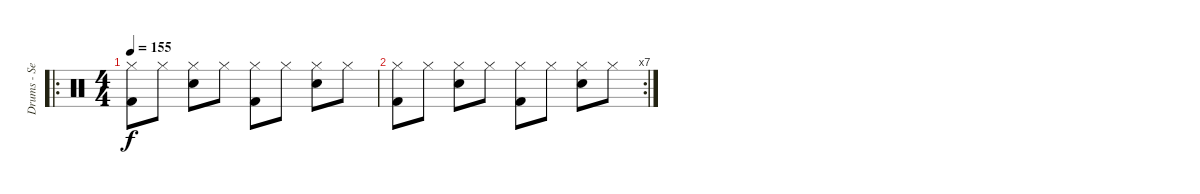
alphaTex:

\track ("Drums - Sebastien" "Drums - Se") {instrument percussion}
\staff {score}
\articulation defaults
\ro
\ts (4 4)
\tempo 155
\clef neutral
\ks c
("Hi-Hat (closed)" "Kick (hit) 2").8{dy f} "Hi-Hat (closed)".8 ("Hi-Hat (closed)" "Snare (hit) 2").8 "Hi-Hat (closed)".8 ("Hi-Hat (closed)" "Kick (hit) 2").8 "Hi-Hat (closed)".8 ("Hi-Hat (closed)" "Snare (hit) 2").8 "Hi-Hat (closed)".8 |
\rc 7
("Hi-Hat (closed)" "Kick (hit) 2").8 "Hi-Hat (closed)".8 ("Hi-Hat (closed)" "Snare (hit) 2").8 "Hi-Hat (closed)".8 ("Hi-Hat (closed)" "Kick (hit) 2").8 "Hi-Hat (closed)".8 ("Hi-Hat (closed)" "Snare (hit) 2").8 "Hi-Hat (closed)".8
